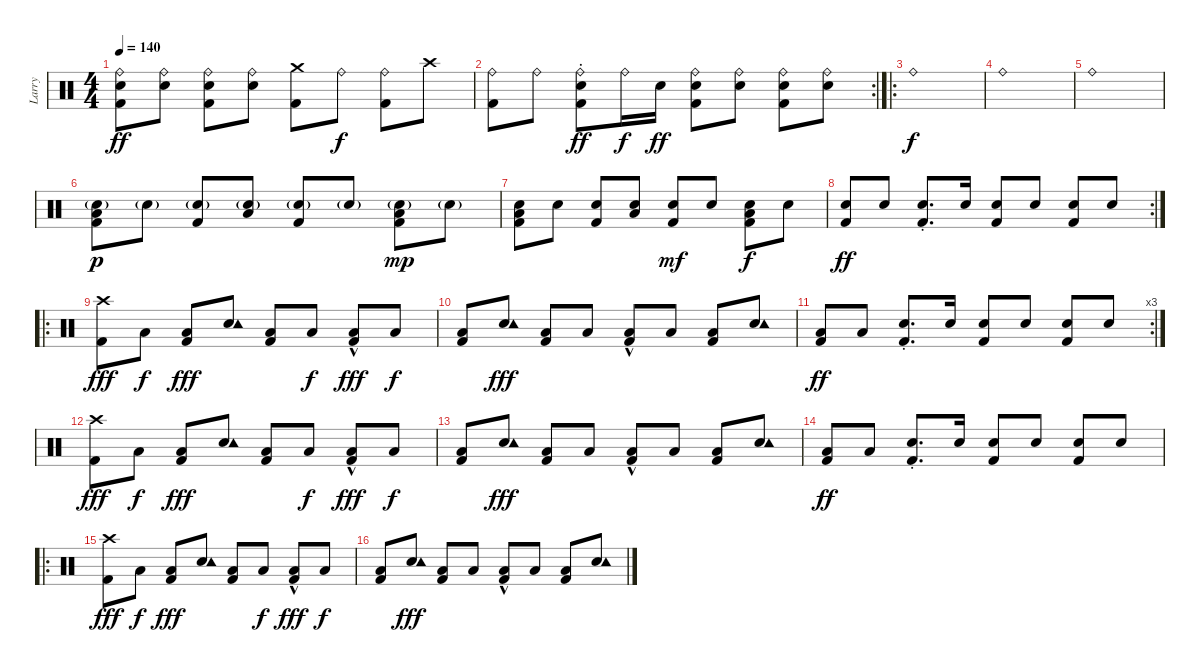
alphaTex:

\track ("Larry" "Larry") {instrument percussion}
\staff {score}
\articulation defaults
\ts (4 4)
\tempo 140
\clef neutral
\ks c
("Electric Snare (hit)" "Kick (hit) 2" "Ride (bell)").8{dy ff} ("Electric Snare (hit)" "Ride (bell)").8 ("Electric Snare (hit)" "Kick (hit) 2" "Ride (bell)").8 ("Electric Snare (hit)" "Ride (bell)").8 ("Crash medium (hit)" "Kick (hit) 2").8 "Ride (bell)".8{dy f} ("Kick (hit) 2" "Ride (bell)").8 "Crash high (hit)".8 |
\rc 2
("Ride (bell)" "Kick (hit) 2").8 "Ride (bell)".8 ("Electric Snare (hit)"{st} "Kick (hit) 2" "Ride (bell)").8{dy ff} "Ride (bell)".16{dy f} "Electric Snare (hit)".16{dy ff} ("Electric Snare (hit)" "Kick (hit) 2" "Ride (bell)").8 ("Electric Snare (hit)" "Ride (bell)").8 ("Electric Snare (hit)" "Kick (hit) 2" "Ride (bell)").8 ("Electric Snare (hit)" "Ride (bell)").8 |
\ro "Ride (bell)".1{dy f}
|
"Ride (bell)".1 |
"Ride (bell)".1 |
("Electric Snare (hit)"{g} "Low Floor Tom (hit)" "Kick (hit) 2").8{dy p} "Electric Snare (hit)"{g}.8 ("Electric Snare (hit)"{g} "Kick (hit) 2").8 ("Electric Snare (hit)"{g} "Low Floor Tom (hit)").8 ("Electric Snare (hit)"{g} "Kick (hit) 2").8 "Electric Snare (hit)"{g}.8 ("Electric Snare (hit)"{g} "Low Floor Tom (hit)" "Kick (hit) 2").8{dy mp} "Electric Snare (hit)"{g}.8 |
("Electric Snare (hit)" "Low Floor Tom (hit)" "Kick (hit) 2").8 "Electric Snare (hit)".8 ("Electric Snare (hit)" "Kick (hit) 2").8 ("Electric Snare (hit)" "Low Floor Tom (hit)").8 ("Electric Snare (hit)" "Kick (hit) 2").8{dy mf} "Electric Snare (hit)".8 ("Electric Snare (hit)" "Low Floor Tom (hit)" "Kick (hit) 2").8{dy f} "Electric Snare (hit)".8 |
\rc 2
("Electric Snare (hit)" "Kick (hit) 2").8{dy ff} "Electric Snare (hit)".8 ("Electric Snare (hit)"{st} "Kick (hit) 2").8{d} "Electric Snare (hit)".16 ("Electric Snare (hit)" "Kick (hit) 2").8 "Electric Snare (hit)".8 ("Electric Snare (hit)" "Kick (hit) 2").8 "Electric Snare (hit)".8 |
\ro
("Crash high (hit)" "Kick (hit) 2").8{dy fff} "Low Floor Tom (hit)".8{dy f} ("Low Floor Tom (hit)" "Kick (hit) 2").8{dy fff} ("Electric Snare (hit)" "Tambourine (hit)").8 ("Low Floor Tom (hit)" "Kick (hit) 2").8 "Low Floor Tom (hit)".8{dy f} ("Low Floor Tom (hit)"{hac} "Kick (hit) 2").8{dy fff} "Low Floor Tom (hit)".8{dy f} |
("Low Floor Tom (hit)" "Kick (hit) 2").8 ("Electric Snare (hit)" "Tambourine (hit)").8{dy fff} ("Low Floor Tom (hit)" "Kick (hit) 2").8 "Low Floor Tom (hit)".8 ("Low Floor Tom (hit)"{hac} "Kick (hit) 2").8 "Low Floor Tom (hit)".8 ("Low Floor Tom (hit)" "Kick (hit) 2").8 ("Electric Snare (hit)" "Tambourine (hit)").8 |
\rc 3
("Low Floor Tom (hit)" "Kick (hit) 2").8{dy ff} "Low Floor Tom (hit)".8 ("Electric Snare (hit)"{st} "Kick (hit) 2").8{d} "Electric Snare (hit)".16 ("Electric Snare (hit)" "Kick (hit) 2").8 "Electric Snare (hit)".8 ("Electric Snare (hit)" "Kick (hit) 2").8 "Electric Snare (hit)".8 |
("Crash high (hit)" "Kick (hit) 2").8{dy fff} "Low Floor Tom (hit)".8{dy f} ("Low Floor Tom (hit)" "Kick (hit) 2").8{dy fff} ("Electric Snare (hit)" "Tambourine (hit)").8 ("Low Floor Tom (hit)" "Kick (hit) 2").8 "Low Floor Tom (hit)".8{dy f} ("Low Floor Tom (hit)"{hac} "Kick (hit) 2").8{dy fff} "Low Floor Tom (hit)".8{dy f} |
("Low Floor Tom (hit)" "Kick (hit) 2").8 ("Electric Snare (hit)" "Tambourine (hit)").8{dy fff} ("Low Floor Tom (hit)" "Kick (hit) 2").8 "Low Floor Tom (hit)".8 ("Low Floor Tom (hit)"{hac} "Kick (hit) 2").8 "Low Floor Tom (hit)".8 ("Low Floor Tom (hit)" "Kick (hit) 2").8 ("Electric Snare (hit)" "Tambourine (hit)").8 |
("Low Floor Tom (hit)" "Kick (hit) 2").8{dy ff} "Low Floor Tom (hit)".8 ("Electric Snare (hit)"{st} "Kick (hit) 2").8{d} "Electric Snare (hit)".16 ("Electric Snare (hit)" "Kick (hit) 2").8 "Electric Snare (hit)".8 ("Electric Snare (hit)" "Kick (hit) 2").8 "Electric Snare (hit)".8 |
\ro
("Crash high (hit)" "Kick (hit) 2").8{dy fff} "Low Floor Tom (hit)".8{dy f} ("Low Floor Tom (hit)" "Kick (hit) 2").8{dy fff} ("Electric Snare (hit)" "Tambourine (hit)").8 ("Low Floor Tom (hit)" "Kick (hit) 2").8 "Low Floor Tom (hit)".8{dy f} ("Low Floor Tom (hit)"{hac} "Kick (hit) 2").8{dy fff} "Low Floor Tom (hit)".8{dy f} |
("Low Floor Tom (hit)" "Kick (hit) 2").8 ("Electric Snare (hit)" "Tambourine (hit)").8{dy fff} ("Low Floor Tom (hit)" "Kick (hit) 2").8 "Low Floor Tom (hit)".8 ("Low Floor Tom (hit)"{hac} "Kick (hit) 2").8 "Low Floor Tom (hit)".8 ("Low Floor Tom (hit)" "Kick (hit) 2").8 ("Electric Snare (hit)" "Tambourine (hit)").8
